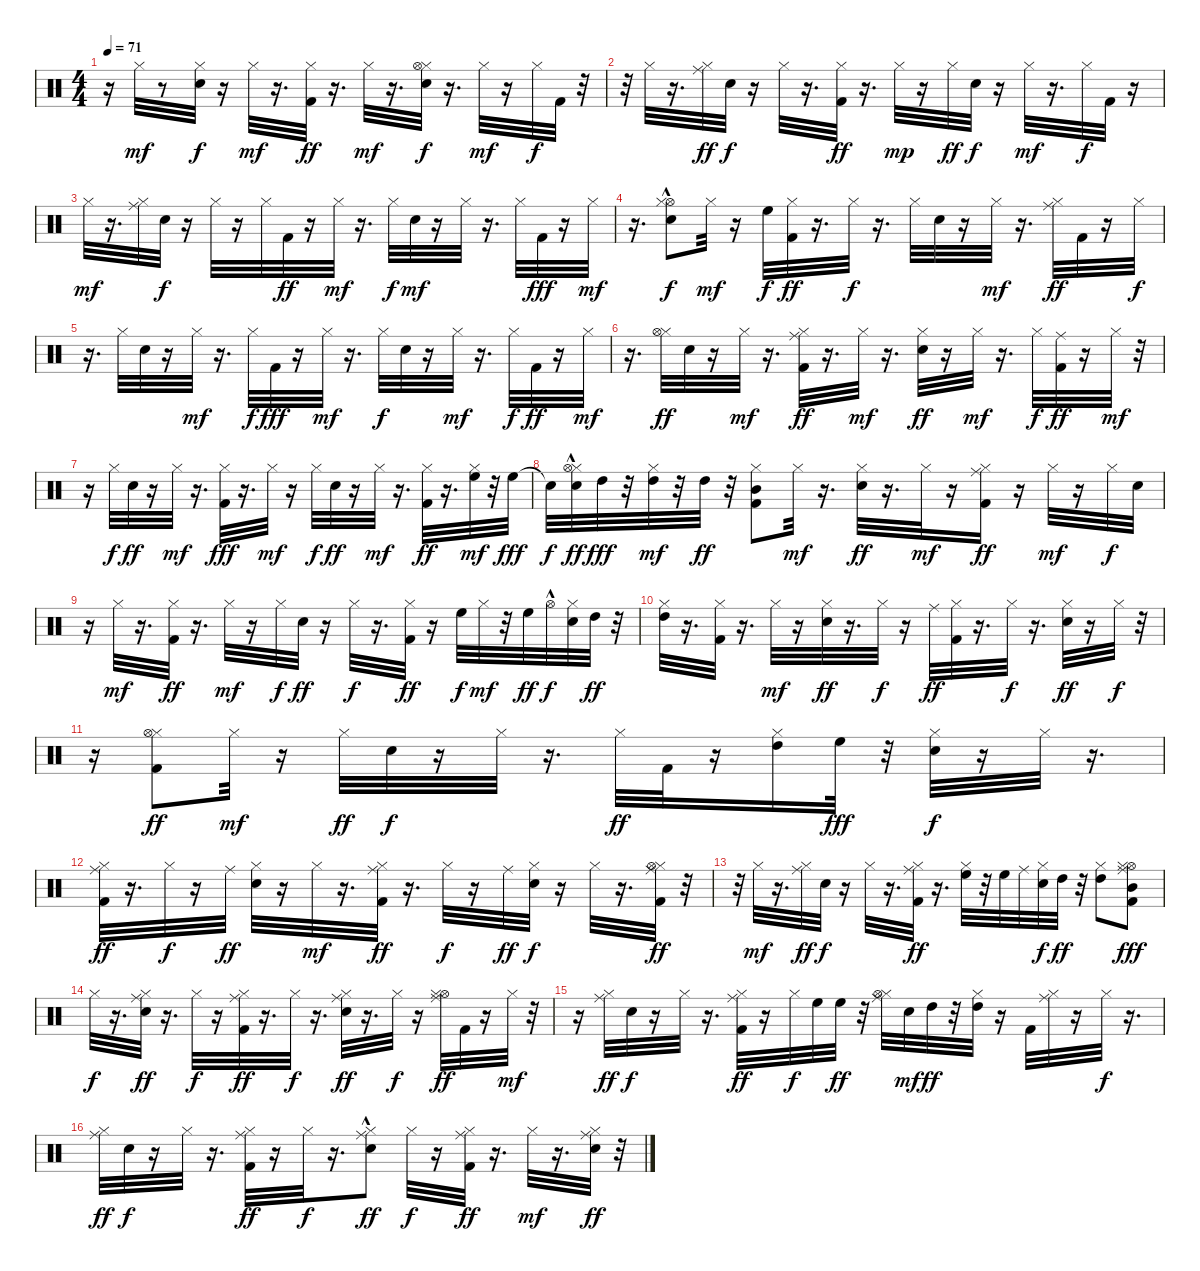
\track "" {instrument percussion}
\staff {score}
\articulation defaults
\ts (4 4)
\tempo 71
\clef neutral
\ks c
r.16{dy ff} "Hi-Hat (closed)".32{dy mf} r.8 ("Hi-Hat (closed)" "Snare (hit) 2").32{dy f} r.16 "Hi-Hat (closed)".32{dy mf} r.16{d} ("Hi-Hat (closed)" "Kick (hit) 2").32{dy ff} r.16{d} "Hi-Hat (closed)".32{dy mf} r.16{d} ("Hi-Hat (closed)" "Hi-Hat (open)" "Snare (hit) 2").32{dy f} r.16{d} "Hi-Hat (closed)".32{dy mf} r.16 "Hi-Hat (closed)".32{dy f} "Kick (hit) 2".32 r.32 |
r.32 "Hi-Hat (closed)".32 r.16{d} ("Hi-Hat (closed)" "Ride (middle)").32{dy ff} "Snare (hit) 2".32{dy f} r.16 "Hi-Hat (closed)".32 r.16{d} ("Hi-Hat (closed)" "Kick (hit) 2").32{dy ff} r.16{d} "Hi-Hat (closed)".32{dy mp} r.16 "Hi-Hat (closed)".32{dy ff} "Snare (hit) 2".32{dy f} r.16 "Hi-Hat (closed)".32{dy mf} r.16{d} "Hi-Hat (closed)".32{dy f} "Kick (hit) 2".32 r.16 |
"Hi-Hat (closed)".32{dy mf} r.16{d} ("Hi-Hat (closed)" "Ride (middle)").32 "Snare (hit) 2".32{dy f} r.16 "Hi-Hat (closed)".32 r.16 "Hi-Hat (closed)".32 "Kick (hit) 2".32{dy ff} r.16 "Hi-Hat (closed)".32{dy mf} r.16{d} "Hi-Hat (closed)".32{dy f} "Snare (hit) 2".32{dy mf} r.16 "Hi-Hat (closed)".32 r.16{d} "Hi-Hat (closed)".32 "Kick (hit) 2".32{dy fff} r.16 "Hi-Hat (closed)".32{dy mf} |
r.16{d} ("Hi-Hat (open)"{hac} "Hi-Hat (closed)" "Snare (hit) 2").8{dy f} "Hi-Hat (closed)".32{dy mf} r.16 "High Floor Tom (hit)".32{dy f} ("Hi-Hat (closed)" "Kick (hit) 2").32{dy ff} r.16{d} "Hi-Hat (closed)".32{dy f} r.16{d} "Hi-Hat (closed)".32 "Snare (hit) 2".32 r.16 "Hi-Hat (closed)".32{dy mf} r.16{d} ("Ride (middle)" "Hi-Hat (closed)").32{dy ff} "Kick (hit) 2".32 r.16 "Hi-Hat (closed)".32{dy f} |
r.16{d} "Hi-Hat (closed)".32 "Snare (hit) 2".32 r.16 "Hi-Hat (closed)".32{dy mf} r.16{d} "Hi-Hat (closed)".32{dy f} "Kick (hit) 2".32{dy fff} r.16 "Hi-Hat (closed)".32{dy mf} r.16{d} "Hi-Hat (closed)".32{dy f} "Snare (hit) 2".32 r.16 "Hi-Hat (closed)".32{dy mf} r.16{d} "Hi-Hat (closed)".32{dy f} "Kick (hit) 2".32{dy ff} r.16 "Hi-Hat (closed)".32{dy mf} |
r.16{d} ("Hi-Hat (closed)" "Hi-Hat (open)").32{dy ff} "Snare (hit) 2".32 r.16 "Hi-Hat (closed)".32{dy mf} r.16{d} ("Ride (middle)" "Hi-Hat (closed)" "Kick (hit) 2").32{dy ff} r.16{d} "Hi-Hat (closed)".32{dy mf} r.16{d} ("Hi-Hat (closed)" "Snare (hit) 2").32{dy ff} r.16 "Hi-Hat (closed)".32{dy mf} r.16{d} "Hi-Hat (closed)".32{dy f} ("Ride (middle)" "Kick (hit) 2").32{dy ff} r.16 "Hi-Hat (closed)".32{dy mf} r.32 |
r.16 "Hi-Hat (closed)".32{dy f} "Snare (hit) 2".32{dy ff} r.16 "Hi-Hat (closed)".32{dy mf} r.16{d} ("Kick (hit) 2" "Hi-Hat (closed)").32{dy fff} r.16{d} "Hi-Hat (closed)".32{dy mf} r.16 "Hi-Hat (closed)".32{dy f} "Snare (hit) 2".32{dy ff} r.16 "Hi-Hat (closed)".32{dy mf} r.16{d} ("Hi-Hat (closed)" "Kick (hit) 2").32{dy ff} r.16{d} ("High Floor Tom (hit)" "Hi-Hat (closed)").32{dy mf} r.32 "High Floor Tom (hit)".32{dy fff} |
"Snare (hit)"{t}.32{dy f} ("Snare (hit) 2" "Hi-Hat (closed)" "Hi-Hat (open)"{hac}).32{dy ff} "High Tom (hit)".32{dy fff} r.32 ("High Tom (hit)" "Hi-Hat (closed)").32{dy mf} r.32 "High Tom (hit)".32{dy ff} r.32 ("Mid Tom (hit)" "Kick (hit) 2" "Hi-Hat (closed)").8 "Hi-Hat (closed)".32{dy mf} r.16{d} ("Hi-Hat (closed)" "Snare (hit) 2").32{dy ff} r.16{d} "Hi-Hat (closed)".32{dy mf} r.16 ("Ride (middle)" "Hi-Hat (closed)" "Kick (hit) 2").16{dy ff} r.16 "Hi-Hat (closed)".32{dy mf} r.16 "Hi-Hat (closed)".32{dy f} "Snare (hit) 2".32 |
r.16 "Hi-Hat (closed)".32{dy mf} r.16{d} ("Hi-Hat (closed)" "Kick (hit) 2").32{dy ff} r.16{d} "Hi-Hat (closed)".32{dy mf} r.16 "Hi-Hat (closed)".32{dy f} "Snare (hit) 2".32{dy ff} r.16 "Hi-Hat (closed)".32{dy f} r.16{d} ("Hi-Hat (closed)" "Kick (hit) 2").32{dy ff} r.16 "High Floor Tom (hit)".32{dy f} "Hi-Hat (closed)".32{dy mf} r.32 "High Floor Tom (hit)".32{dy ff} "Hi-Hat (open)"{hac}.32{dy f} ("Hi-Hat (closed)" "Snare (hit) 2").32 "High Tom (hit)".32{dy ff} r.32 |
("Hi-Hat (closed)" "High Tom (hit)").32 r.16{d} ("Kick (hit) 2" "Hi-Hat (closed)").32 r.16{d} "Hi-Hat (closed)".32{dy mf} r.16 ("Hi-Hat (closed)" "Snare (hit) 2").32{dy ff} r.16{d} "Hi-Hat (closed)".32{dy f} r.16 "Ride (middle)".32{dy ff} ("Hi-Hat (closed)" "Kick (hit) 2").32 r.16{d} "Hi-Hat (closed)".32{dy f} r.16{d} ("Snare (hit) 2" "Hi-Hat (closed)").32{dy ff} r.16 "Hi-Hat (closed)".32{dy f} r.32 |
r.16 ("Hi-Hat (closed)" "Hi-Hat (open)" "Kick (hit) 2").8{dy ff} "Hi-Hat (closed)".32{dy mf} r.16 "Hi-Hat (closed)".32{dy ff} "Snare (hit) 2".32{dy f} r.16 "Hi-Hat (closed)".32 r.16{d} "Hi-Hat (closed)".32{dy ff} "Kick (hit) 2".32 r.16 ("Hi-Hat (closed)" "High Tom (hit)").16 "High Floor Tom (hit)".32{dy fff} r.32 ("Hi-Hat (closed)" "Snare (hit) 2").32{dy f} r.16 "Hi-Hat (closed)".32 r.16{d} |
("Hi-Hat (closed)" "Ride (middle)" "Kick (hit) 2").32{dy ff} r.16{d} "Hi-Hat (closed)".32{dy f} r.16 "Ride (middle)".32{dy ff} ("Hi-Hat (closed)" "Snare (hit) 2").32 r.16 "Hi-Hat (closed)".32{dy mf} r.16{d} ("Hi-Hat (closed)" "Ride (middle)" "Kick (hit) 2").32{dy ff} r.16{d} "Hi-Hat (closed)".32{dy f} r.16 "Ride (middle)".32{dy ff} ("Hi-Hat (closed)" "Snare (hit) 2").32{dy f} r.16 "Hi-Hat (closed)".32 r.16{d} ("Hi-Hat (closed)" "Hi-Hat (open)" "Kick (hit) 2" "Ride (middle)").32{dy ff} r.32 |
r.32 "Hi-Hat (closed)".32{dy mf} r.16{d} ("Hi-Hat (closed)" "Ride (middle)").32{dy ff} "Snare (hit) 2".32{dy f} r.16 "Hi-Hat (closed)".32 r.16{d} ("Hi-Hat (closed)" "Ride (middle)" "Kick (hit) 2").32{dy ff} r.16{d} ("Hi-Hat (closed)" "High Floor Tom (hit)").32 r.32 "High Floor Tom (hit)".32 "Ride (middle)".32 ("Snare (hit) 2" "Hi-Hat (closed)").32{dy f} "High Tom (hit)".32{dy ff} r.32 ("High Tom (hit)" "Hi-Hat (closed)").8 ("Hi-Hat (open)" "Ride (middle)" "Mid Tom (hit)" "Hi-Hat (closed)" "Kick (hit) 2").8{dy fff} |
"Hi-Hat (closed)".32{dy f} r.16{d} ("Ride (middle)" "Hi-Hat (closed)" "Snare (hit) 2").32{dy ff} r.16{d} "Hi-Hat (closed)".32{dy f} r.16 ("Ride (middle)" "Kick (hit) 2" "Hi-Hat (closed)").32{dy ff} r.16{d} "Hi-Hat (closed)".32{dy f} r.16{d} ("Ride (middle)" "Hi-Hat (closed)" "Snare (hit) 2").32{dy ff} r.16{d} "Hi-Hat (closed)".32{dy f} r.16 ("Hi-Hat (open)" "Hi-Hat (closed)" "Ride (middle)").32{dy ff} "Kick (hit) 2".32 r.16 "Hi-Hat (closed)".32{dy mf} r.32 |
r.16 ("Ride (middle)" "Hi-Hat (closed)").32{dy ff} "Snare (hit) 2".32{dy f} r.16 "Hi-Hat (closed)".32 r.16{d} ("Ride (middle)" "Hi-Hat (closed)" "Kick (hit) 2").32{dy ff} r.16 "Hi-Hat (closed)".32{dy f} "High Floor Tom (hit)".32 "High Floor Tom (hit)".32{dy ff} r.32 ("Hi-Hat (closed)" "Hi-Hat (open)" "Ride (middle)").32 "Snare (hit) 2".32{dy mf} "High Tom (hit)".32{dy ff} r.32 ("High Tom (hit)" "Hi-Hat (closed)").32 r.16 "Kick (hit) 2".32 ("Ride (middle)" "Hi-Hat (closed)").32 r.16 "Hi-Hat (closed)".32{dy f} r.16{d} |
("Ride (middle)" "Hi-Hat (closed)").32{dy ff} "Snare (hit) 2".32{dy f} r.16 "Hi-Hat (closed)".32 r.16{d} ("Hi-Hat (closed)" "Ride (middle)" "Kick (hit) 2").32{dy ff} r.16 "Hi-Hat (closed)".32{dy f} r.16{d} ("Ride (middle)"{hac} "Hi-Hat (closed)" "Snare (hit) 2").8{dy ff} "Hi-Hat (closed)".32{dy f} r.16 ("Kick (hit) 2" "Ride (middle)" "Hi-Hat (closed)").32{dy ff} r.16{d} "Hi-Hat (closed)".32{dy mf} r.16{d} ("Ride (middle)" "Hi-Hat (closed)" "Snare (hit) 2").32{dy ff} r.32
